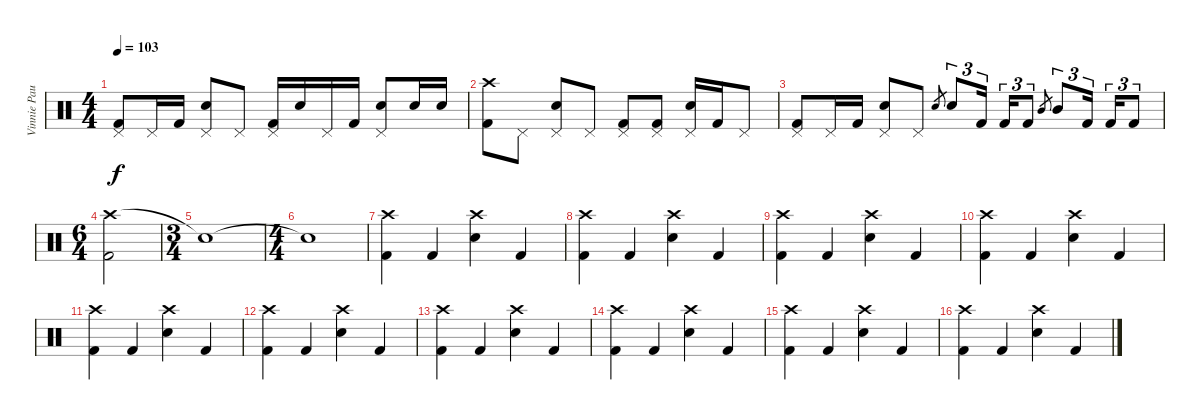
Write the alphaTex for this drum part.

\track ("Vinnie Paul" "Vinnie Pau") {instrument percussion}
\staff {score}
\articulation defaults
\ts (4 4)
\tempo 103
\clef neutral
\ks c
("Pedal Hi-Hat (hit)" "Kick (hit) 2").8{dy f} "Pedal Hi-Hat (hit)".16 "Kick (hit) 2".16 ("Pedal Hi-Hat (hit)" "Electric Snare (hit)").8 "Pedal Hi-Hat (hit)".8 ("Pedal Hi-Hat (hit)" "Kick (hit) 2").16 "Electric Snare (hit)".16 "Pedal Hi-Hat (hit)".16 "Kick (hit) 2".16 ("Pedal Hi-Hat (hit)" "Electric Snare (hit)").8 "Electric Snare (hit)".16 "Electric Snare (hit)".16 |
("Crash high (hit)" "Kick (hit) 2").8 "Pedal Hi-Hat (hit)".8 ("Pedal Hi-Hat (hit)" "Electric Snare (hit)").8 "Pedal Hi-Hat (hit)".8 ("Pedal Hi-Hat (hit)" "Kick (hit) 2").8 ("Pedal Hi-Hat (hit)" "Kick (hit) 2").8 ("Pedal Hi-Hat (hit)" "Electric Snare (hit)").16 "Kick (hit) 2".16 "Pedal Hi-Hat (hit)".8 |
("Pedal Hi-Hat (hit)" "Kick (hit) 2").8 "Pedal Hi-Hat (hit)".16 "Kick (hit) 2".16 ("Pedal Hi-Hat (hit)" "Electric Snare (hit)").8 "Pedal Hi-Hat (hit)".8 "Electric Snare (hit)".8{gr} "Electric Snare (hit)".8{tu (3 2)} "Kick (hit) 2".16{tu (3 2)} "Kick (hit) 2".16{tu (3 2)} "Kick (hit) 2".8{tu (3 2)} "Mid Tom (hit)".8{gr} "Mid Tom (hit)".8{tu (3 2)} "Kick (hit) 2".16{tu (3 2)} "Kick (hit) 2".16{tu (3 2)} "Kick (hit) 2".8{tu (3 2)} |
\ts (6 4)
("Crash high (hit)" "Kick (hit) 2").2 |
\ts (3 4)
"Snare (hit)"{t}.1 |
\ts (4 4)
"Snare (hit)"{t}.1 |
("Crash high (hit)" "Kick (hit) 2").4 "Kick (hit) 2".4 ("Crash high (hit)" "Electric Snare (hit)").4 "Kick (hit) 2".4 |
("Crash high (hit)" "Kick (hit) 2").4 "Kick (hit) 2".4 ("Crash high (hit)" "Electric Snare (hit)").4 "Kick (hit) 2".4 |
("Crash high (hit)" "Kick (hit) 2").4 "Kick (hit) 2".4 ("Crash high (hit)" "Electric Snare (hit)").4 "Kick (hit) 2".4 |
("Crash high (hit)" "Kick (hit) 2").4 "Kick (hit) 2".4 ("Crash high (hit)" "Electric Snare (hit)").4 "Kick (hit) 2".4 |
("Crash high (hit)" "Kick (hit) 2").4 "Kick (hit) 2".4 ("Crash high (hit)" "Electric Snare (hit)").4 "Kick (hit) 2".4 |
("Crash high (hit)" "Kick (hit) 2").4 "Kick (hit) 2".4 ("Crash high (hit)" "Electric Snare (hit)").4 "Kick (hit) 2".4 |
("Crash high (hit)" "Kick (hit) 2").4 "Kick (hit) 2".4 ("Crash high (hit)" "Electric Snare (hit)").4 "Kick (hit) 2".4 |
("Crash high (hit)" "Kick (hit) 2").4 "Kick (hit) 2".4 ("Crash high (hit)" "Electric Snare (hit)").4 "Kick (hit) 2".4 |
("Crash high (hit)" "Kick (hit) 2").4 "Kick (hit) 2".4 ("Crash high (hit)" "Electric Snare (hit)").4 "Kick (hit) 2".4 |
("Crash high (hit)" "Kick (hit) 2").4 "Kick (hit) 2".4 ("Crash high (hit)" "Electric Snare (hit)").4 "Kick (hit) 2".4
